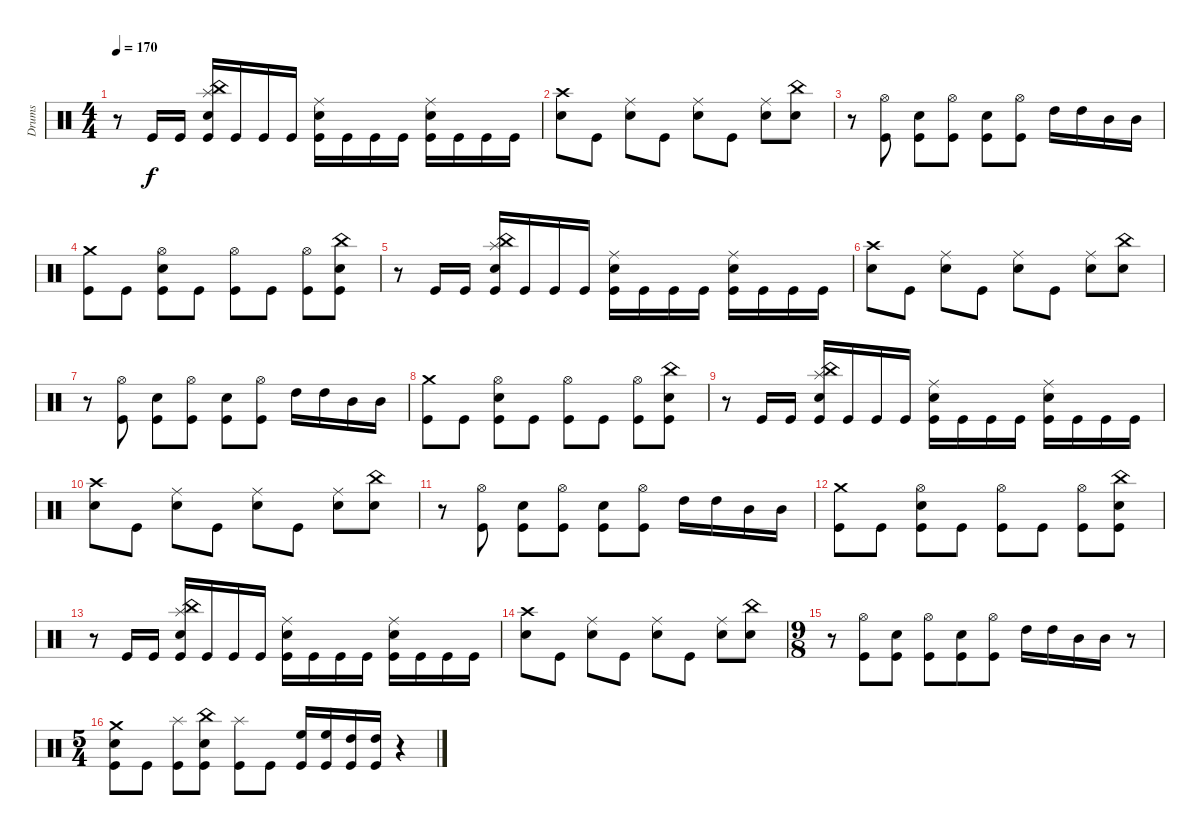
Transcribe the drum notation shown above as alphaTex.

\track ("Drums" "Drums") {instrument percussion}
\staff {score}
\articulation defaults
\ts (4 4)
\tempo 170
\clef neutral
\ks c
r.8{dy f} "Kick (hit)".16 "Kick (hit)".16 ("Splash (hit)" "China (hit)" "Electric Snare (hit)" "Kick (hit)").16 "Kick (hit)".16 "Kick (hit)".16 "Kick (hit)".16 ("Ride (middle)" "Electric Snare (hit)" "Kick (hit)").16 "Kick (hit)".16 "Kick (hit)".16 "Kick (hit)".16 ("Ride (middle)" "Electric Snare (hit)" "Kick (hit)").16 "Kick (hit)".16 "Kick (hit)".16 "Kick (hit)".16 |
("Crash high (hit)" "Electric Snare (hit)").8 "Kick (hit)".8 ("Ride (middle)" "Electric Snare (hit)").8 "Kick (hit)".8 ("Ride (middle)" "Electric Snare (hit)").8 "Kick (hit)".8 ("Ride (middle)" "Electric Snare (hit)").8 ("China (hit)" "Electric Snare (hit)").8 |
r.8 ("Hi-Hat (open)" "Kick (hit)").8 ("Electric Snare (hit)" "Kick (hit)").8 ("Hi-Hat (open)" "Kick (hit)").8 ("Electric Snare (hit)" "Kick (hit)").8 ("Hi-Hat (open)" "Kick (hit)").8 "High Tom (hit)".16 "High Tom (hit)".16 "Mid Tom (hit)".16 "Mid Tom (hit)".16 |
("Crash medium (hit)" "Kick (hit)").8 "Kick (hit)".8 ("Hi-Hat (open)" "Electric Snare (hit)" "Kick (hit)").8 "Kick (hit)".8 ("Hi-Hat (open)" "Kick (hit)").8 "Kick (hit)".8 ("Hi-Hat (open)" "Kick (hit)").8 ("China (hit)" "Electric Snare (hit)" "Kick (hit)").8 |
r.8 "Kick (hit)".16 "Kick (hit)".16 ("Splash (hit)" "China (hit)" "Electric Snare (hit)" "Kick (hit)").16 "Kick (hit)".16 "Kick (hit)".16 "Kick (hit)".16 ("Ride (middle)" "Electric Snare (hit)" "Kick (hit)").16 "Kick (hit)".16 "Kick (hit)".16 "Kick (hit)".16 ("Ride (middle)" "Electric Snare (hit)" "Kick (hit)").16 "Kick (hit)".16 "Kick (hit)".16 "Kick (hit)".16 |
("Crash high (hit)" "Electric Snare (hit)").8 "Kick (hit)".8 ("Ride (middle)" "Electric Snare (hit)").8 "Kick (hit)".8 ("Ride (middle)" "Electric Snare (hit)").8 "Kick (hit)".8 ("Ride (middle)" "Electric Snare (hit)").8 ("China (hit)" "Electric Snare (hit)").8 |
r.8 ("Hi-Hat (open)" "Kick (hit)").8 ("Electric Snare (hit)" "Kick (hit)").8 ("Hi-Hat (open)" "Kick (hit)").8 ("Electric Snare (hit)" "Kick (hit)").8 ("Hi-Hat (open)" "Kick (hit)").8 "High Tom (hit)".16 "High Tom (hit)".16 "Mid Tom (hit)".16 "Mid Tom (hit)".16 |
("Crash medium (hit)" "Kick (hit)").8 "Kick (hit)".8 ("Hi-Hat (open)" "Electric Snare (hit)" "Kick (hit)").8 "Kick (hit)".8 ("Hi-Hat (open)" "Kick (hit)").8 "Kick (hit)".8 ("Hi-Hat (open)" "Kick (hit)").8 ("China (hit)" "Electric Snare (hit)" "Kick (hit)").8 |
r.8 "Kick (hit)".16 "Kick (hit)".16 ("Splash (hit)" "China (hit)" "Electric Snare (hit)" "Kick (hit)").16 "Kick (hit)".16 "Kick (hit)".16 "Kick (hit)".16 ("Ride (middle)" "Electric Snare (hit)" "Kick (hit)").16 "Kick (hit)".16 "Kick (hit)".16 "Kick (hit)".16 ("Ride (middle)" "Electric Snare (hit)" "Kick (hit)").16 "Kick (hit)".16 "Kick (hit)".16 "Kick (hit)".16 |
("Crash high (hit)" "Electric Snare (hit)").8 "Kick (hit)".8 ("Ride (middle)" "Electric Snare (hit)").8 "Kick (hit)".8 ("Ride (middle)" "Electric Snare (hit)").8 "Kick (hit)".8 ("Ride (middle)" "Electric Snare (hit)").8 ("China (hit)" "Electric Snare (hit)").8 |
r.8 ("Hi-Hat (open)" "Kick (hit)").8 ("Electric Snare (hit)" "Kick (hit)").8 ("Hi-Hat (open)" "Kick (hit)").8 ("Electric Snare (hit)" "Kick (hit)").8 ("Hi-Hat (open)" "Kick (hit)").8 "High Tom (hit)".16 "High Tom (hit)".16 "Mid Tom (hit)".16 "Mid Tom (hit)".16 |
("Crash medium (hit)" "Kick (hit)").8 "Kick (hit)".8 ("Hi-Hat (open)" "Electric Snare (hit)" "Kick (hit)").8 "Kick (hit)".8 ("Hi-Hat (open)" "Kick (hit)").8 "Kick (hit)".8 ("Hi-Hat (open)" "Kick (hit)").8 ("China (hit)" "Electric Snare (hit)" "Kick (hit)").8 |
r.8 "Kick (hit)".16 "Kick (hit)".16 ("Splash (hit)" "China (hit)" "Electric Snare (hit)" "Kick (hit)").16 "Kick (hit)".16 "Kick (hit)".16 "Kick (hit)".16 ("Ride (middle)" "Electric Snare (hit)" "Kick (hit)").16 "Kick (hit)".16 "Kick (hit)".16 "Kick (hit)".16 ("Ride (middle)" "Electric Snare (hit)" "Kick (hit)").16 "Kick (hit)".16 "Kick (hit)".16 "Kick (hit)".16 |
("Crash high (hit)" "Electric Snare (hit)").8 "Kick (hit)".8 ("Ride (middle)" "Electric Snare (hit)").8 "Kick (hit)".8 ("Ride (middle)" "Electric Snare (hit)").8 "Kick (hit)".8 ("Ride (middle)" "Electric Snare (hit)").8 ("China (hit)" "Electric Snare (hit)").8 |
\ts (9 8)
r.8 ("Hi-Hat (open)" "Kick (hit)").8 ("Electric Snare (hit)" "Kick (hit)").8 ("Hi-Hat (open)" "Kick (hit)").8 ("Electric Snare (hit)" "Kick (hit)").8 ("Hi-Hat (open)" "Kick (hit)").8 "High Tom (hit)".16 "High Tom (hit)".16 "Mid Tom (hit)".16 "Mid Tom (hit)".16 r.8 |
\ts (5 4)
("Crash medium (hit)" "Electric Snare (hit)" "Kick (hit)").8 "Kick (hit)".8 ("Splash (hit)" "Kick (hit)").8 ("China (hit)" "Electric Snare (hit)" "Kick (hit)").8 ("Splash (hit)" "Kick (hit)").8 "Kick (hit)".8 ("High Floor Tom (hit)" "Kick (hit)").16 ("High Floor Tom (hit)" "Kick (hit)").16 ("High Tom (hit)" "Kick (hit)").16 ("High Tom (hit)" "Kick (hit)").16 r.4
